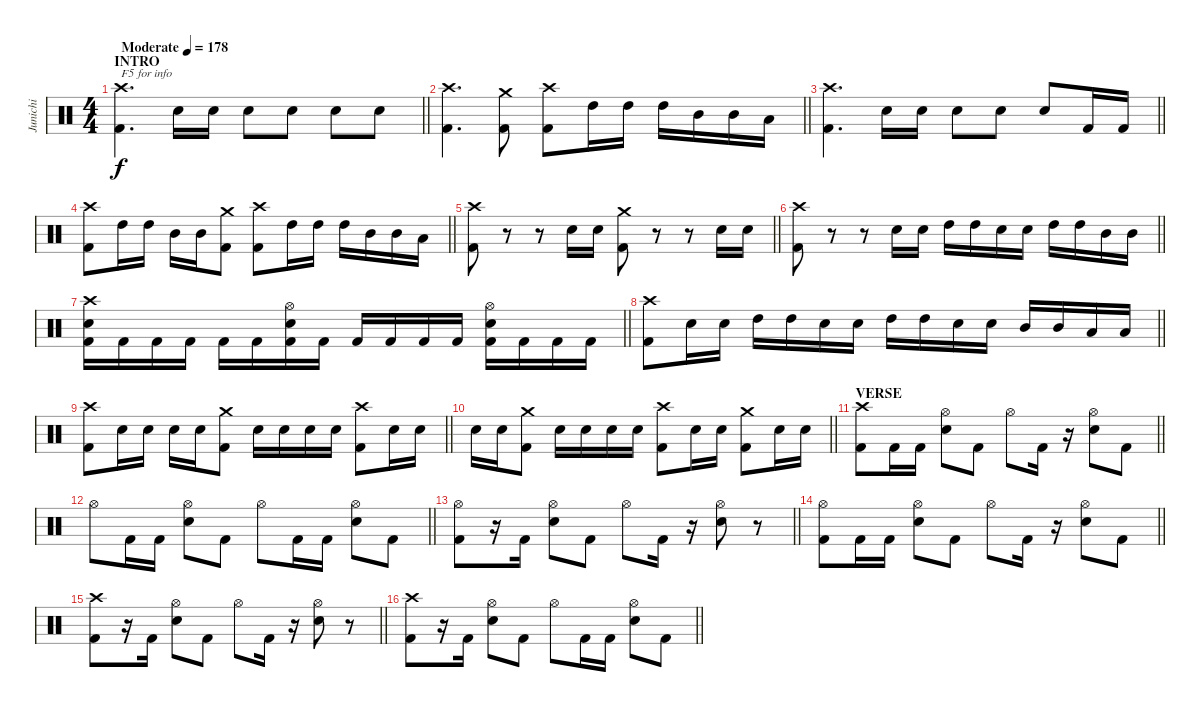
\track ("Junichi" "Junichi") {instrument percussion}
\staff {score}
\articulation defaults
\ts (4 4)
\section ("" "INTRO")
\tempo (178 "Moderate")
\clef neutral
\barLineRight lightlight
\ks c
("Crash high (hit)" "Kick (hit) 2").4{d txt "F5 for info" dy f} "Snare (hit) 2".16 "Snare (hit) 2".16 "Snare (hit) 2".8 "Snare (hit) 2".8 "Snare (hit) 2".8 "Snare (hit) 2".8 |
\barLineRight lightlight
("Crash high (hit)" "Kick (hit) 2").4{d} ("Crash medium (hit)" "Kick (hit) 2").8 ("Crash high (hit)" "Kick (hit) 2").8 "High Tom (hit)".16 "High Tom (hit)".16 "High Tom (hit)".16 "Mid Tom (hit)".16 "Mid Tom (hit)".16 "Low Tom (hit)".16 |
\barLineRight lightlight
("Crash high (hit)" "Kick (hit) 2").4{d} "Snare (hit) 2".16 "Snare (hit) 2".16 "Snare (hit) 2".8 "Snare (hit) 2".8 "Snare (hit) 2".8 "Kick (hit) 2".16 "Kick (hit) 2".16 |
\barLineRight lightlight
("Crash high (hit)" "Kick (hit) 2").8 "High Tom (hit)".16 "High Tom (hit)".16 "Mid Tom (hit)".16 "Mid Tom (hit)".16 ("Crash medium (hit)" "Kick (hit) 2").8 ("Crash high (hit)" "Kick (hit) 2").8 "High Tom (hit)".16 "High Tom (hit)".16 "High Tom (hit)".16 "Mid Tom (hit)".16 "Mid Tom (hit)".16 "Low Tom (hit)".16 |
\barLineRight lightlight
("Crash high (hit)" "Kick (hit) 2").8 r.8 r.8 "Snare (hit) 2".16 "Snare (hit) 2".16 ("Crash medium (hit)" "Kick (hit) 2").8 r.8 r.8 "Snare (hit) 2".16 "Snare (hit) 2".16 |
\barLineRight lightlight
("Crash high (hit)" "Kick (hit) 2").8 r.8 r.8 "Snare (hit) 2".16 "Snare (hit) 2".16 "High Tom (hit)".16 "High Tom (hit)".16 "Snare (hit) 2".16 "Snare (hit) 2".16 "High Tom (hit)".16 "High Tom (hit)".16 "Mid Tom (hit)".16 "Mid Tom (hit)".16 |
\barLineRight lightlight
("Crash high (hit)" "Snare (hit) 2" "Kick (hit) 2").16 "Kick (hit) 2".16 "Kick (hit) 2".16 "Kick (hit) 2".16 "Kick (hit) 2".16 "Kick (hit) 2".16 ("Hi-Hat (open)" "Snare (hit) 2" "Kick (hit) 2").16 "Kick (hit) 2".16 "Kick (hit) 2".16 "Kick (hit) 2".16 "Kick (hit) 2".16 "Kick (hit) 2".16 ("Hi-Hat (open)" "Snare (hit) 2" "Kick (hit) 2").16 "Kick (hit) 2".16 "Kick (hit) 2".16 "Kick (hit) 2".16 |
\barLineRight lightlight
("Crash high (hit)" "Kick (hit) 2").8 "Snare (hit) 2".16 "Snare (hit) 2".16 "High Tom (hit)".16 "High Tom (hit)".16 "Snare (hit) 2".16 "Snare (hit) 2".16 "High Tom (hit)".16 "High Tom (hit)".16 "Snare (hit) 2".16 "Snare (hit) 2".16 "Mid Tom (hit)".16 "Mid Tom (hit)".16 "Low Tom (hit)".16 "Low Tom (hit)".16 |
\barLineRight lightlight
("Crash high (hit)" "Kick (hit) 2").8 "Snare (hit) 2".16 "Snare (hit) 2".16 "Snare (hit) 2".16 "Snare (hit) 2".16 ("Crash medium (hit)" "Kick (hit) 2").8 "Snare (hit) 2".16 "Snare (hit) 2".16 "Snare (hit) 2".16 "Snare (hit) 2".16 ("Crash high (hit)" "Kick (hit) 2").8 "Snare (hit) 2".16 "Snare (hit) 2".16 |
\barLineRight lightlight "Snare (hit) 2".16 "Snare (hit) 2".16
("Crash medium (hit)" "Kick (hit) 2").8 "Snare (hit) 2".16 "Snare (hit) 2".16 "Snare (hit) 2".16 "Snare (hit) 2".16 ("Crash high (hit)" "Kick (hit) 2").8 "Snare (hit) 2".16 "Snare (hit) 2".16 ("Crash medium (hit)" "Kick (hit) 2").8 "Snare (hit) 2".16 "Snare (hit) 2".16 |
\section ("" "VERSE")
\barLineRight lightlight
("Crash high (hit)" "Kick (hit) 2").8 "Kick (hit) 2".16 "Kick (hit) 2".16 ("Hi-Hat (open)" "Snare (hit) 2").8 "Kick (hit) 2".8 "Hi-Hat (open)".8 "Kick (hit) 2".16 r.16 ("Hi-Hat (open)" "Snare (hit) 2").8 "Kick (hit) 2".8 |
\barLineRight lightlight "Hi-Hat (open)".8 "Kick (hit) 2".16 "Kick (hit) 2".16
("Hi-Hat (open)" "Snare (hit) 2").8 "Kick (hit) 2".8 "Hi-Hat (open)".8 "Kick (hit) 2".16 "Kick (hit) 2".16 ("Hi-Hat (open)" "Snare (hit) 2").8 "Kick (hit) 2".8 |
\barLineRight lightlight
("Hi-Hat (open)" "Kick (hit) 2").8 r.16 "Kick (hit) 2".16 ("Hi-Hat (open)" "Snare (hit) 2").8 "Kick (hit) 2".8 "Hi-Hat (open)".8 "Kick (hit) 2".16 r.16 ("Hi-Hat (open)" "Snare (hit) 2").8 r.8 |
\barLineRight lightlight
("Hi-Hat (open)" "Kick (hit) 2").8 "Kick (hit) 2".16 "Kick (hit) 2".16 ("Hi-Hat (open)" "Snare (hit) 2").8 "Kick (hit) 2".8 "Hi-Hat (open)".8 "Kick (hit) 2".16 r.16 ("Hi-Hat (open)" "Snare (hit) 2").8 "Kick (hit) 2".8 |
\barLineRight lightlight
("Crash high (hit)" "Kick (hit) 2").8 r.16 "Kick (hit) 2".16 ("Hi-Hat (open)" "Snare (hit) 2").8 "Kick (hit) 2".8 "Hi-Hat (open)".8 "Kick (hit) 2".16 r.16 ("Hi-Hat (open)" "Snare (hit) 2").8 r.8 |
\barLineRight lightlight
("Crash high (hit)" "Kick (hit) 2").8 r.16 "Kick (hit) 2".16 ("Hi-Hat (open)" "Snare (hit) 2").8 "Kick (hit) 2".8 "Hi-Hat (open)".8 "Kick (hit) 2".16 "Kick (hit) 2".16 ("Hi-Hat (open)" "Snare (hit) 2").8 "Kick (hit) 2".8
